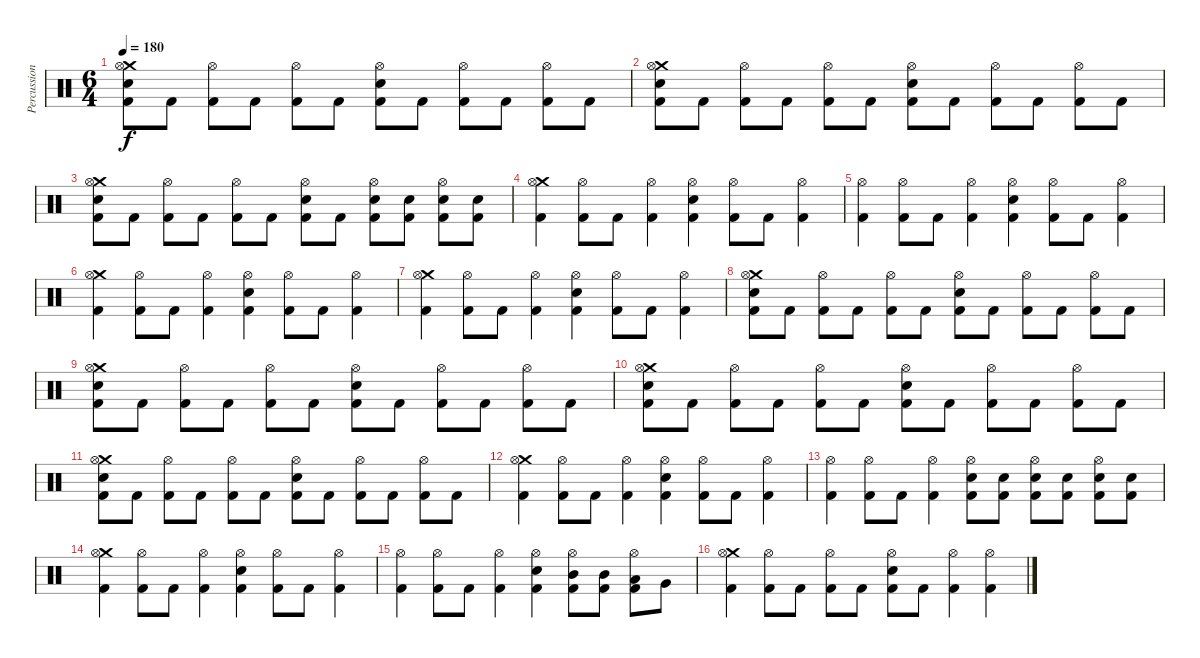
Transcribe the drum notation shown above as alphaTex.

\track ("Percussion" "Percussion") {instrument percussion}
\staff {score}
\articulation defaults
\ts (6 4)
\tempo 180
\clef neutral
\ks c
("Crash medium (hit)" "Hi-Hat (open)" "Electric Snare (hit)" "Kick (hit) 2").8{dy f} "Kick (hit) 2".8 ("Hi-Hat (open)" "Kick (hit) 2").8 "Kick (hit) 2".8 ("Hi-Hat (open)" "Kick (hit) 2").8 "Kick (hit) 2".8 ("Hi-Hat (open)" "Electric Snare (hit)" "Kick (hit) 2").8 "Kick (hit) 2".8 ("Hi-Hat (open)" "Kick (hit) 2").8 "Kick (hit) 2".8 ("Hi-Hat (open)" "Kick (hit) 2").8 "Kick (hit) 2".8 |
("Crash medium (hit)" "Hi-Hat (open)" "Electric Snare (hit)" "Kick (hit) 2").8 "Kick (hit) 2".8 ("Hi-Hat (open)" "Kick (hit) 2").8 "Kick (hit) 2".8 ("Hi-Hat (open)" "Kick (hit) 2").8 "Kick (hit) 2".8 ("Hi-Hat (open)" "Electric Snare (hit)" "Kick (hit) 2").8 "Kick (hit) 2".8 ("Hi-Hat (open)" "Kick (hit) 2").8 "Kick (hit) 2".8 ("Hi-Hat (open)" "Kick (hit) 2").8 "Kick (hit) 2".8 |
("Crash medium (hit)" "Hi-Hat (open)" "Electric Snare (hit)" "Kick (hit) 2").8 "Kick (hit) 2".8 ("Hi-Hat (open)" "Kick (hit) 2").8 "Kick (hit) 2".8 ("Hi-Hat (open)" "Kick (hit) 2").8 "Kick (hit) 2".8 ("Hi-Hat (open)" "Electric Snare (hit)" "Kick (hit) 2").8 "Kick (hit) 2".8 ("Hi-Hat (open)" "Electric Snare (hit)" "Kick (hit) 2").8 ("Electric Snare (hit)" "Kick (hit) 2").8 ("Hi-Hat (open)" "Electric Snare (hit)" "Kick (hit) 2").8 ("Electric Snare (hit)" "Kick (hit) 2").8 |
("Crash medium (hit)" "Hi-Hat (open)" "Kick (hit) 2").4 ("Hi-Hat (open)" "Kick (hit) 2").8 "Kick (hit) 2".8 ("Hi-Hat (open)" "Kick (hit) 2").4 ("Hi-Hat (open)" "Electric Snare (hit)" "Kick (hit) 2").4 ("Hi-Hat (open)" "Kick (hit) 2").8 "Kick (hit) 2".8 ("Hi-Hat (open)" "Kick (hit) 2").4 |
("Hi-Hat (open)" "Kick (hit) 2").4 ("Hi-Hat (open)" "Kick (hit) 2").8 "Kick (hit) 2".8 ("Hi-Hat (open)" "Kick (hit) 2").4 ("Hi-Hat (open)" "Electric Snare (hit)" "Kick (hit) 2").4 ("Hi-Hat (open)" "Kick (hit) 2").8 "Kick (hit) 2".8 ("Hi-Hat (open)" "Kick (hit) 2").4 |
("Crash medium (hit)" "Hi-Hat (open)" "Kick (hit) 2").4 ("Hi-Hat (open)" "Kick (hit) 2").8 "Kick (hit) 2".8 ("Hi-Hat (open)" "Kick (hit) 2").4 ("Hi-Hat (open)" "Electric Snare (hit)" "Kick (hit) 2").4 ("Hi-Hat (open)" "Kick (hit) 2").8 "Kick (hit) 2".8 ("Hi-Hat (open)" "Kick (hit) 2").4 |
("Crash medium (hit)" "Hi-Hat (open)" "Kick (hit) 2").4 ("Hi-Hat (open)" "Kick (hit) 2").8 "Kick (hit) 2".8 ("Hi-Hat (open)" "Kick (hit) 2").4 ("Hi-Hat (open)" "Electric Snare (hit)" "Kick (hit) 2").4 ("Hi-Hat (open)" "Kick (hit) 2").8 "Kick (hit) 2".8 ("Hi-Hat (open)" "Kick (hit) 2").4 |
("Crash medium (hit)" "Hi-Hat (open)" "Electric Snare (hit)" "Kick (hit) 2").8 "Kick (hit) 2".8 ("Hi-Hat (open)" "Kick (hit) 2").8 "Kick (hit) 2".8 ("Hi-Hat (open)" "Kick (hit) 2").8 "Kick (hit) 2".8 ("Hi-Hat (open)" "Electric Snare (hit)" "Kick (hit) 2").8 "Kick (hit) 2".8 ("Hi-Hat (open)" "Kick (hit) 2").8 "Kick (hit) 2".8 ("Hi-Hat (open)" "Kick (hit) 2").8 "Kick (hit) 2".8 |
("Crash medium (hit)" "Hi-Hat (open)" "Electric Snare (hit)" "Kick (hit) 2").8 "Kick (hit) 2".8 ("Hi-Hat (open)" "Kick (hit) 2").8 "Kick (hit) 2".8 ("Hi-Hat (open)" "Kick (hit) 2").8 "Kick (hit) 2".8 ("Hi-Hat (open)" "Electric Snare (hit)" "Kick (hit) 2").8 "Kick (hit) 2".8 ("Hi-Hat (open)" "Kick (hit) 2").8 "Kick (hit) 2".8 ("Hi-Hat (open)" "Kick (hit) 2").8 "Kick (hit) 2".8 |
("Crash medium (hit)" "Hi-Hat (open)" "Electric Snare (hit)" "Kick (hit) 2").8 "Kick (hit) 2".8 ("Hi-Hat (open)" "Kick (hit) 2").8 "Kick (hit) 2".8 ("Hi-Hat (open)" "Kick (hit) 2").8 "Kick (hit) 2".8 ("Hi-Hat (open)" "Electric Snare (hit)" "Kick (hit) 2").8 "Kick (hit) 2".8 ("Hi-Hat (open)" "Kick (hit) 2").8 "Kick (hit) 2".8 ("Hi-Hat (open)" "Kick (hit) 2").8 "Kick (hit) 2".8 |
("Crash medium (hit)" "Hi-Hat (open)" "Electric Snare (hit)" "Kick (hit) 2").8 "Kick (hit) 2".8 ("Hi-Hat (open)" "Kick (hit) 2").8 "Kick (hit) 2".8 ("Hi-Hat (open)" "Kick (hit) 2").8 "Kick (hit) 2".8 ("Hi-Hat (open)" "Electric Snare (hit)" "Kick (hit) 2").8 "Kick (hit) 2".8 ("Hi-Hat (open)" "Kick (hit) 2").8 "Kick (hit) 2".8 ("Hi-Hat (open)" "Kick (hit) 2").8 "Kick (hit) 2".8 |
("Crash medium (hit)" "Hi-Hat (open)" "Kick (hit) 2").4 ("Hi-Hat (open)" "Kick (hit) 2").8 "Kick (hit) 2".8 ("Hi-Hat (open)" "Kick (hit) 2").4 ("Hi-Hat (open)" "Electric Snare (hit)" "Kick (hit) 2").4 ("Hi-Hat (open)" "Kick (hit) 2").8 "Kick (hit) 2".8 ("Hi-Hat (open)" "Kick (hit) 2").4 |
("Hi-Hat (open)" "Kick (hit) 2").4 ("Hi-Hat (open)" "Kick (hit) 2").8 "Kick (hit) 2".8 ("Hi-Hat (open)" "Kick (hit) 2").4 ("Hi-Hat (open)" "Electric Snare (hit)" "Kick (hit) 2").8 ("Electric Snare (hit)" "Kick (hit) 2").8 ("Hi-Hat (open)" "Electric Snare (hit)" "Kick (hit) 2").8 ("Electric Snare (hit)" "Kick (hit) 2").8 ("Hi-Hat (open)" "Electric Snare (hit)" "Kick (hit) 2").8 ("Electric Snare (hit)" "Kick (hit) 2").8 |
("Crash medium (hit)" "Hi-Hat (open)" "Kick (hit) 2").4 ("Hi-Hat (open)" "Kick (hit) 2").8 "Kick (hit) 2".8 ("Hi-Hat (open)" "Kick (hit) 2").4 ("Hi-Hat (open)" "Electric Snare (hit)" "Kick (hit) 2").4 ("Hi-Hat (open)" "Kick (hit) 2").8 "Kick (hit) 2".8 ("Hi-Hat (open)" "Kick (hit) 2").4 |
("Hi-Hat (open)" "Kick (hit) 2").4 ("Hi-Hat (open)" "Kick (hit) 2").8 "Kick (hit) 2".8 ("Hi-Hat (open)" "Kick (hit) 2").4 ("Hi-Hat (open)" "Electric Snare (hit)" "Kick (hit) 2").4 ("Hi-Hat (open)" "Mid Tom (hit)" "Kick (hit) 2").8 ("Mid Tom (hit)" "Kick (hit) 2").8 ("Hi-Hat (open)" "Low Tom (hit)" "Kick (hit) 2").8 "Very Low Tom (hit)".8 |
("Crash medium (hit)" "Hi-Hat (open)" "Kick (hit) 2").4 ("Hi-Hat (open)" "Kick (hit) 2").8 "Kick (hit) 2".8 ("Hi-Hat (open)" "Kick (hit) 2").8 "Kick (hit) 2".8 ("Hi-Hat (open)" "Electric Snare (hit)" "Kick (hit) 2").8 "Kick (hit) 2".8 ("Hi-Hat (open)" "Kick (hit) 2").4 ("Hi-Hat (open)" "Kick (hit) 2").4
